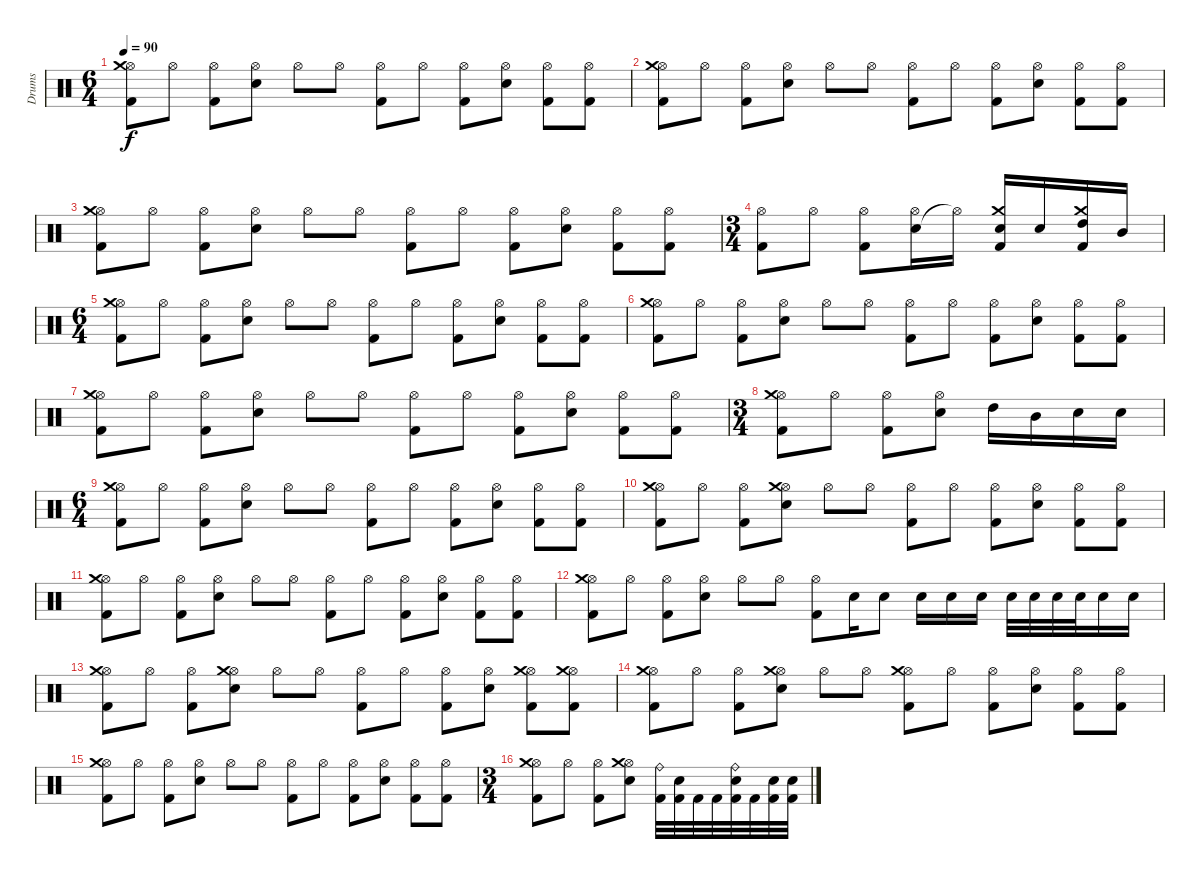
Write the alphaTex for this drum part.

\track ("Drums" "Drums") {instrument percussion}
\staff {score}
\articulation defaults
\ts (6 4)
\tempo 90
\clef neutral
\ks c
("Hi-Hat (open)" "Kick (hit) 2" "Crash medium (hit)").8{dy f} "Hi-Hat (open)".8 ("Hi-Hat (open)" "Kick (hit) 2").8 ("Hi-Hat (open)" "Electric Snare (hit)").8 "Hi-Hat (open)".8 "Hi-Hat (open)".8 ("Hi-Hat (open)" "Kick (hit) 2").8 "Hi-Hat (open)".8 ("Hi-Hat (open)" "Kick (hit) 2").8 ("Hi-Hat (open)" "Electric Snare (hit)").8 ("Hi-Hat (open)" "Kick (hit) 2").8 ("Hi-Hat (open)" "Kick (hit) 2").8 |
("Hi-Hat (open)" "Kick (hit) 2" "Crash medium (hit)").8 "Hi-Hat (open)".8 ("Hi-Hat (open)" "Kick (hit) 2").8 ("Hi-Hat (open)" "Electric Snare (hit)").8 "Hi-Hat (open)".8 "Hi-Hat (open)".8 ("Hi-Hat (open)" "Kick (hit) 2").8 "Hi-Hat (open)".8 ("Hi-Hat (open)" "Kick (hit) 2").8 ("Hi-Hat (open)" "Electric Snare (hit)").8 ("Hi-Hat (open)" "Kick (hit) 2").8 ("Hi-Hat (open)" "Kick (hit) 2").8 |
("Hi-Hat (open)" "Kick (hit) 2" "Crash medium (hit)").8 "Hi-Hat (open)".8 ("Hi-Hat (open)" "Kick (hit) 2").8 ("Hi-Hat (open)" "Electric Snare (hit)").8 "Hi-Hat (open)".8 "Hi-Hat (open)".8 ("Hi-Hat (open)" "Kick (hit) 2").8 "Hi-Hat (open)".8 ("Hi-Hat (open)" "Kick (hit) 2").8 ("Hi-Hat (open)" "Electric Snare (hit)").8 ("Hi-Hat (open)" "Kick (hit) 2").8 ("Hi-Hat (open)" "Kick (hit) 2").8 |
\ts (3 4)
("Kick (hit) 2" "Hi-Hat (open)").8 "Hi-Hat (open)".8 ("Kick (hit) 2" "Hi-Hat (open)").8 ("Electric Snare (hit)" "Hi-Hat (open)").16 "Hi-Hat (open)"{t}.16 ("Kick (hit) 2" "Crash medium (hit)" "Electric Snare (hit)").16 "Electric Snare (hit)".16 ("Kick (hit) 2" "Crash medium (hit)" "High Tom (hit)").16 "Mid Tom (hit)".16 |
\ts (6 4)
("Hi-Hat (open)" "Kick (hit) 2" "Crash medium (hit)").8 "Hi-Hat (open)".8 ("Hi-Hat (open)" "Kick (hit) 2").8 ("Hi-Hat (open)" "Electric Snare (hit)").8 "Hi-Hat (open)".8 "Hi-Hat (open)".8 ("Hi-Hat (open)" "Kick (hit) 2").8 "Hi-Hat (open)".8 ("Hi-Hat (open)" "Kick (hit) 2").8 ("Hi-Hat (open)" "Electric Snare (hit)").8 ("Hi-Hat (open)" "Kick (hit) 2").8 ("Hi-Hat (open)" "Kick (hit) 2").8 |
("Hi-Hat (open)" "Kick (hit) 2" "Crash medium (hit)").8 "Hi-Hat (open)".8 ("Hi-Hat (open)" "Kick (hit) 2").8 ("Hi-Hat (open)" "Electric Snare (hit)").8 "Hi-Hat (open)".8 "Hi-Hat (open)".8 ("Hi-Hat (open)" "Kick (hit) 2").8 "Hi-Hat (open)".8 ("Hi-Hat (open)" "Kick (hit) 2").8 ("Hi-Hat (open)" "Electric Snare (hit)").8 ("Hi-Hat (open)" "Kick (hit) 2").8 ("Hi-Hat (open)" "Kick (hit) 2").8 |
("Hi-Hat (open)" "Kick (hit) 2" "Crash medium (hit)").8 "Hi-Hat (open)".8 ("Hi-Hat (open)" "Kick (hit) 2").8 ("Hi-Hat (open)" "Electric Snare (hit)").8 "Hi-Hat (open)".8 "Hi-Hat (open)".8 ("Hi-Hat (open)" "Kick (hit) 2").8 "Hi-Hat (open)".8 ("Hi-Hat (open)" "Kick (hit) 2").8 ("Hi-Hat (open)" "Electric Snare (hit)").8 ("Hi-Hat (open)" "Kick (hit) 2").8 ("Hi-Hat (open)" "Kick (hit) 2").8 |
\ts (3 4)
("Hi-Hat (open)" "Kick (hit) 2" "Crash medium (hit)").8 "Hi-Hat (open)".8 ("Hi-Hat (open)" "Kick (hit) 2").8 ("Hi-Hat (open)" "Electric Snare (hit)").8 "High Tom (hit)".16 "Mid Tom (hit)".16 "Electric Snare (hit)".16 "Electric Snare (hit)".16 |
\ts (6 4)
("Hi-Hat (open)" "Kick (hit) 2" "Crash medium (hit)").8 "Hi-Hat (open)".8 ("Hi-Hat (open)" "Kick (hit) 2").8 ("Hi-Hat (open)" "Electric Snare (hit)").8 "Hi-Hat (open)".8 "Hi-Hat (open)".8 ("Hi-Hat (open)" "Kick (hit) 2").8 "Hi-Hat (open)".8 ("Hi-Hat (open)" "Kick (hit) 2").8 ("Hi-Hat (open)" "Electric Snare (hit)").8 ("Hi-Hat (open)" "Kick (hit) 2").8 ("Hi-Hat (open)" "Kick (hit) 2").8 |
("Hi-Hat (open)" "Kick (hit) 2" "Crash medium (hit)").8 "Hi-Hat (open)".8 ("Hi-Hat (open)" "Kick (hit) 2").8 ("Hi-Hat (open)" "Electric Snare (hit)" "Crash medium (hit)").8 "Hi-Hat (open)".8 "Hi-Hat (open)".8 ("Hi-Hat (open)" "Kick (hit) 2").8 "Hi-Hat (open)".8 ("Hi-Hat (open)" "Kick (hit) 2").8 ("Hi-Hat (open)" "Electric Snare (hit)").8 ("Hi-Hat (open)" "Kick (hit) 2").8 ("Hi-Hat (open)" "Kick (hit) 2").8 |
("Hi-Hat (open)" "Kick (hit) 2" "Crash medium (hit)").8 "Hi-Hat (open)".8 ("Hi-Hat (open)" "Kick (hit) 2").8 ("Hi-Hat (open)" "Electric Snare (hit)").8 "Hi-Hat (open)".8 "Hi-Hat (open)".8 ("Hi-Hat (open)" "Kick (hit) 2").8 "Hi-Hat (open)".8 ("Hi-Hat (open)" "Kick (hit) 2").8 ("Hi-Hat (open)" "Electric Snare (hit)").8 ("Hi-Hat (open)" "Kick (hit) 2").8 ("Hi-Hat (open)" "Kick (hit) 2").8 |
("Hi-Hat (open)" "Kick (hit) 2" "Crash medium (hit)").8 "Hi-Hat (open)".8 ("Hi-Hat (open)" "Kick (hit) 2").8 ("Hi-Hat (open)" "Electric Snare (hit)").8 "Hi-Hat (open)".8 "Hi-Hat (open)".8 ("Hi-Hat (open)" "Kick (hit) 2").8 "Electric Snare (hit)".16 "Electric Snare (hit)".8 "Electric Snare (hit)".16 "Electric Snare (hit)".16 "Electric Snare (hit)".16 "Electric Snare (hit)".32 "Electric Snare (hit)".32 "Electric Snare (hit)".32 "Electric Snare (hit)".32 "Electric Snare (hit)".16 "Electric Snare (hit)".16 |
("Hi-Hat (open)" "Kick (hit) 2" "Crash medium (hit)").8 "Hi-Hat (open)".8 ("Hi-Hat (open)" "Kick (hit) 2").8 ("Hi-Hat (open)" "Electric Snare (hit)" "Crash medium (hit)").8 "Hi-Hat (open)".8 "Hi-Hat (open)".8 ("Hi-Hat (open)" "Kick (hit) 2").8 "Hi-Hat (open)".8 ("Hi-Hat (open)" "Kick (hit) 2").8 ("Hi-Hat (open)" "Electric Snare (hit)").8 ("Hi-Hat (open)" "Crash medium (hit)" "Kick (hit) 2").8 ("Hi-Hat (open)" "Crash medium (hit)" "Kick (hit) 2").8 |
("Hi-Hat (open)" "Kick (hit) 2" "Crash medium (hit)").8 "Hi-Hat (open)".8 ("Hi-Hat (open)" "Kick (hit) 2").8 ("Hi-Hat (open)" "Electric Snare (hit)" "Crash medium (hit)").8 "Hi-Hat (open)".8 "Hi-Hat (open)".8 ("Hi-Hat (open)" "Crash medium (hit)" "Kick (hit) 2").8 "Hi-Hat (open)".8 ("Hi-Hat (open)" "Kick (hit) 2").8 ("Hi-Hat (open)" "Electric Snare (hit)").8 ("Hi-Hat (open)" "Kick (hit) 2").8 ("Hi-Hat (open)" "Kick (hit) 2").8 |
("Hi-Hat (open)" "Kick (hit) 2" "Crash medium (hit)").8 "Hi-Hat (open)".8 ("Hi-Hat (open)" "Kick (hit) 2").8 ("Hi-Hat (open)" "Electric Snare (hit)").8 "Hi-Hat (open)".8 "Hi-Hat (open)".8 ("Hi-Hat (open)" "Kick (hit) 2").8 "Hi-Hat (open)".8 ("Hi-Hat (open)" "Kick (hit) 2").8 ("Hi-Hat (open)" "Electric Snare (hit)").8 ("Hi-Hat (open)" "Kick (hit) 2").8 ("Hi-Hat (open)" "Kick (hit) 2").8 |
\ts (3 4)
("Hi-Hat (open)" "Kick (hit) 2" "Crash medium (hit)").8 "Hi-Hat (open)".8 ("Hi-Hat (open)" "Kick (hit) 2").8 ("Hi-Hat (open)" "Electric Snare (hit)" "Crash medium (hit)").8 ("Kick (hit) 2" "Ride (bell)").32 ("Kick (hit) 2" "Electric Snare (hit)").32 "Kick (hit) 2".32 "Kick (hit) 2".32 ("Kick (hit) 2" "Electric Snare (hit)" "Ride (bell)").32 "Kick (hit) 2".32 ("Kick (hit) 2" "Electric Snare (hit)").32 ("Kick (hit) 2" "Electric Snare (hit)").32
